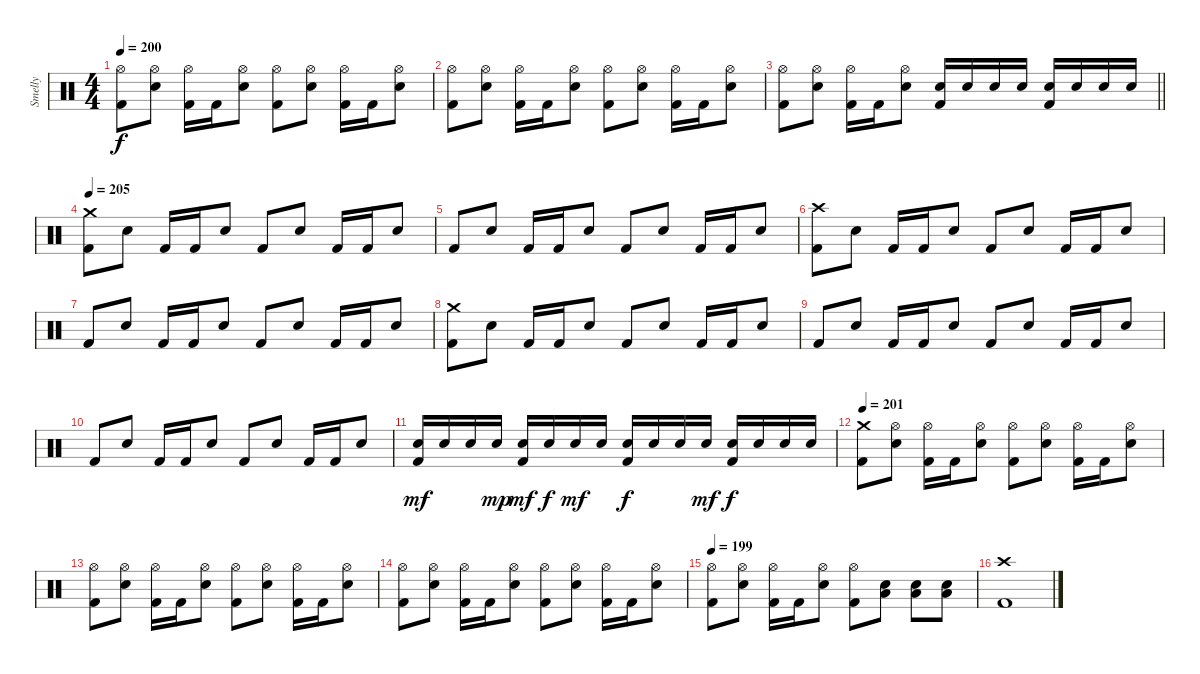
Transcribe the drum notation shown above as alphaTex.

\track ("Smelly" "Smelly") {instrument percussion}
\staff {score}
\articulation defaults
\ts (4 4)
\tempo 200
\clef neutral
\ks c
("Hi-Hat (open)" "Kick (hit) 2").8{dy f} ("Hi-Hat (open)" "Electric Snare (hit)").8 ("Hi-Hat (open)" "Kick (hit) 2").16 "Kick (hit) 2".16 ("Hi-Hat (open)" "Electric Snare (hit)").8 ("Hi-Hat (open)" "Kick (hit) 2").8 ("Hi-Hat (open)" "Electric Snare (hit)").8 ("Hi-Hat (open)" "Kick (hit) 2").16 "Kick (hit) 2".16 ("Hi-Hat (open)" "Electric Snare (hit)").8 |
("Hi-Hat (open)" "Kick (hit) 2").8 ("Hi-Hat (open)" "Electric Snare (hit)").8 ("Hi-Hat (open)" "Kick (hit) 2").16 "Kick (hit) 2".16 ("Hi-Hat (open)" "Electric Snare (hit)").8 ("Hi-Hat (open)" "Kick (hit) 2").8 ("Hi-Hat (open)" "Electric Snare (hit)").8 ("Hi-Hat (open)" "Kick (hit) 2").16 "Kick (hit) 2".16 ("Hi-Hat (open)" "Electric Snare (hit)").8 |
\barLineRight lightlight
("Hi-Hat (open)" "Kick (hit) 2").8 ("Hi-Hat (open)" "Electric Snare (hit)").8 ("Hi-Hat (open)" "Kick (hit) 2").16 "Kick (hit) 2".16 ("Hi-Hat (open)" "Electric Snare (hit)").8 ("Electric Snare (hit)" "Kick (hit) 2").16 "Electric Snare (hit)".16 "Electric Snare (hit)".16 "Electric Snare (hit)".16 ("Electric Snare (hit)" "Kick (hit) 2").16 "Electric Snare (hit)".16 "Electric Snare (hit)".16 "Electric Snare (hit)".16 |
\section ("" "")
\tempo 205
("Crash medium (hit)" "Kick (hit) 2").8 "Electric Snare (hit)".8 "Kick (hit) 2".16 "Kick (hit) 2".16 "Electric Snare (hit)".8 "Kick (hit) 2".8 "Electric Snare (hit)".8 "Kick (hit) 2".16 "Kick (hit) 2".16 "Electric Snare (hit)".8 |
"Kick (hit) 2".8 "Electric Snare (hit)".8 "Kick (hit) 2".16 "Kick (hit) 2".16 "Electric Snare (hit)".8 "Kick (hit) 2".8 "Electric Snare (hit)".8 "Kick (hit) 2".16 "Kick (hit) 2".16 "Electric Snare (hit)".8 |
("Crash high (hit)" "Kick (hit) 2").8 "Electric Snare (hit)".8 "Kick (hit) 2".16 "Kick (hit) 2".16 "Electric Snare (hit)".8 "Kick (hit) 2".8 "Electric Snare (hit)".8 "Kick (hit) 2".16 "Kick (hit) 2".16 "Electric Snare (hit)".8 |
"Kick (hit) 2".8 "Electric Snare (hit)".8 "Kick (hit) 2".16 "Kick (hit) 2".16 "Electric Snare (hit)".8 "Kick (hit) 2".8 "Electric Snare (hit)".8 "Kick (hit) 2".16 "Kick (hit) 2".16 "Electric Snare (hit)".8 |
("Crash medium (hit)" "Kick (hit) 2").8 "Electric Snare (hit)".8 "Kick (hit) 2".16 "Kick (hit) 2".16 "Electric Snare (hit)".8 "Kick (hit) 2".8 "Electric Snare (hit)".8 "Kick (hit) 2".16 "Kick (hit) 2".16 "Electric Snare (hit)".8 |
"Kick (hit) 2".8 "Electric Snare (hit)".8 "Kick (hit) 2".16 "Kick (hit) 2".16 "Electric Snare (hit)".8 "Kick (hit) 2".8 "Electric Snare (hit)".8 "Kick (hit) 2".16 "Kick (hit) 2".16 "Electric Snare (hit)".8 |
"Kick (hit) 2".8 "Electric Snare (hit)".8 "Kick (hit) 2".16 "Kick (hit) 2".16 "Electric Snare (hit)".8 "Kick (hit) 2".8 "Electric Snare (hit)".8 "Kick (hit) 2".16 "Kick (hit) 2".16 "Electric Snare (hit)".8 |
("Electric Snare (hit)" "Kick (hit) 2").16{dy mf} "Electric Snare (hit)".16 "Electric Snare (hit)".16 "Electric Snare (hit)".16{dy mp} ("Electric Snare (hit)" "Kick (hit) 2").16{dy mf} "Electric Snare (hit)".16{dy f} "Electric Snare (hit)".16{dy mf} "Electric Snare (hit)".16 ("Electric Snare (hit)" "Kick (hit) 2").16{dy f} "Electric Snare (hit)".16 "Electric Snare (hit)".16 "Electric Snare (hit)".16{dy mf} ("Electric Snare (hit)" "Kick (hit) 2").16{dy f} "Electric Snare (hit)".16 "Electric Snare (hit)".16 "Electric Snare (hit)".16 |
\tempo 201
("Crash medium (hit)" "Kick (hit) 2").8 ("Hi-Hat (open)" "Electric Snare (hit)").8 ("Hi-Hat (open)" "Kick (hit) 2").16 "Kick (hit) 2".16 ("Hi-Hat (open)" "Electric Snare (hit)").8 ("Hi-Hat (open)" "Kick (hit) 2").8 ("Hi-Hat (open)" "Electric Snare (hit)").8 ("Hi-Hat (open)" "Kick (hit) 2").16 "Kick (hit) 2".16 ("Hi-Hat (open)" "Electric Snare (hit)").8 |
("Hi-Hat (open)" "Kick (hit) 2").8 ("Hi-Hat (open)" "Electric Snare (hit)").8 ("Hi-Hat (open)" "Kick (hit) 2").16 "Kick (hit) 2".16 ("Hi-Hat (open)" "Electric Snare (hit)").8 ("Hi-Hat (open)" "Kick (hit) 2").8 ("Hi-Hat (open)" "Electric Snare (hit)").8 ("Hi-Hat (open)" "Kick (hit) 2").16 "Kick (hit) 2".16 ("Hi-Hat (open)" "Electric Snare (hit)").8 |
("Hi-Hat (open)" "Kick (hit) 2").8 ("Hi-Hat (open)" "Electric Snare (hit)").8 ("Hi-Hat (open)" "Kick (hit) 2").16 "Kick (hit) 2".16 ("Hi-Hat (open)" "Electric Snare (hit)").8 ("Hi-Hat (open)" "Kick (hit) 2").8 ("Hi-Hat (open)" "Electric Snare (hit)").8 ("Hi-Hat (open)" "Kick (hit) 2").16 "Kick (hit) 2".16 ("Hi-Hat (open)" "Electric Snare (hit)").8 |
\tempo 199
("Hi-Hat (open)" "Kick (hit) 2").8 ("Hi-Hat (open)" "Electric Snare (hit)").8 ("Hi-Hat (open)" "Kick (hit) 2").16 "Kick (hit) 2".16 ("Hi-Hat (open)" "Electric Snare (hit)").8 ("Hi-Hat (open)" "Kick (hit) 2").8 ("Electric Snare (hit)" "Low Floor Tom (hit)").8 ("Electric Snare (hit)" "Low Floor Tom (hit)").8 ("Electric Snare (hit)" "Low Floor Tom (hit)").8 |
("Crash high (hit)" "Kick (hit) 2").1
